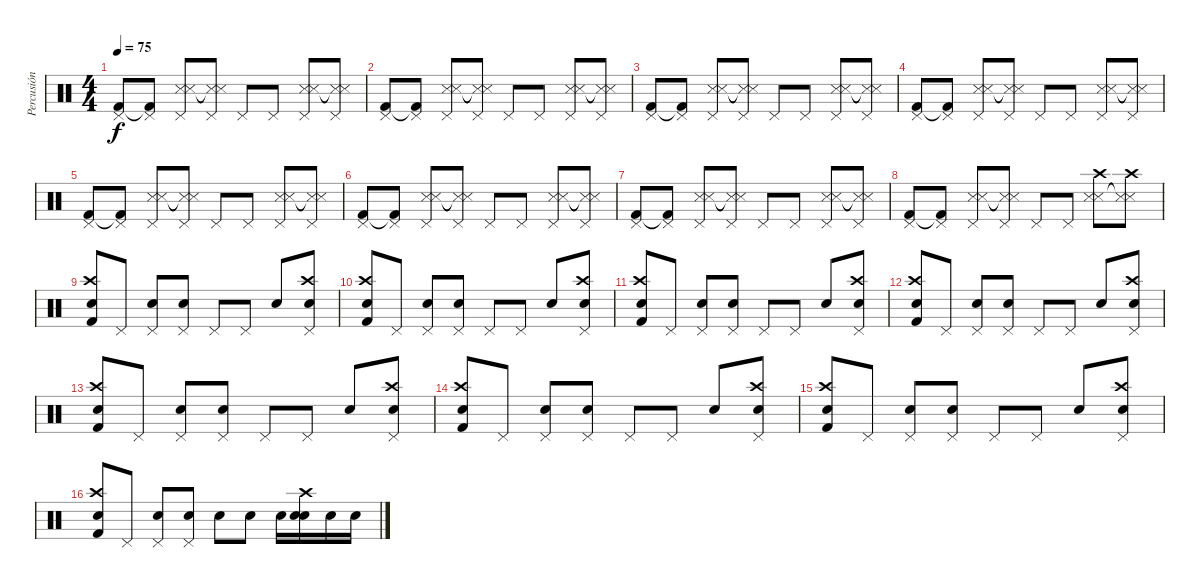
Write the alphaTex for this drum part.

\track ("Percusión" "Percusión") {instrument percussion}
\staff {score}
\articulation defaults
\ts (4 4)
\tempo 75
\clef neutral
\ks c
("Kick (hit) 2" "Pedal Hi-Hat (hit)").8{dy f} ("Kick (hit) 2"{t} "Pedal Hi-Hat (hit)").8 ("Metronome (hit)" "Snare (side stick) 3" "Pedal Hi-Hat (hit)").8 ("Metronome (hit)"{t} "Snare (side stick) 3"{t} "Pedal Hi-Hat (hit)").8 "Pedal Hi-Hat (hit)".8 "Pedal Hi-Hat (hit)".8 ("Metronome (hit)" "Snare (side stick) 3" "Pedal Hi-Hat (hit)").8 ("Metronome (hit)"{t} "Snare (side stick) 3"{t} "Pedal Hi-Hat (hit)").8 |
("Kick (hit) 2" "Pedal Hi-Hat (hit)").8 ("Kick (hit) 2"{t} "Pedal Hi-Hat (hit)").8 ("Metronome (hit)" "Snare (side stick) 3" "Pedal Hi-Hat (hit)").8 ("Metronome (hit)"{t} "Snare (side stick) 3"{t} "Pedal Hi-Hat (hit)").8 "Pedal Hi-Hat (hit)".8 "Pedal Hi-Hat (hit)".8 ("Metronome (hit)" "Snare (side stick) 3" "Pedal Hi-Hat (hit)").8 ("Metronome (hit)"{t} "Snare (side stick) 3"{t} "Pedal Hi-Hat (hit)").8 |
("Kick (hit) 2" "Pedal Hi-Hat (hit)").8 ("Kick (hit) 2"{t} "Pedal Hi-Hat (hit)").8 ("Metronome (hit)" "Snare (side stick) 3" "Pedal Hi-Hat (hit)").8 ("Metronome (hit)"{t} "Snare (side stick) 3"{t} "Pedal Hi-Hat (hit)").8 "Pedal Hi-Hat (hit)".8 "Pedal Hi-Hat (hit)".8 ("Metronome (hit)" "Snare (side stick) 3" "Pedal Hi-Hat (hit)").8 ("Metronome (hit)"{t} "Snare (side stick) 3"{t} "Pedal Hi-Hat (hit)").8 |
("Kick (hit) 2" "Pedal Hi-Hat (hit)").8 ("Kick (hit) 2"{t} "Pedal Hi-Hat (hit)").8 ("Metronome (hit)" "Snare (side stick) 3" "Pedal Hi-Hat (hit)").8 ("Metronome (hit)"{t} "Snare (side stick) 3"{t} "Pedal Hi-Hat (hit)").8 "Pedal Hi-Hat (hit)".8 "Pedal Hi-Hat (hit)".8 ("Metronome (hit)" "Snare (side stick) 3" "Pedal Hi-Hat (hit)").8 ("Metronome (hit)"{t} "Snare (side stick) 3"{t} "Pedal Hi-Hat (hit)").8 |
("Kick (hit) 2" "Pedal Hi-Hat (hit)").8 ("Kick (hit) 2"{t} "Pedal Hi-Hat (hit)").8 ("Metronome (hit)" "Snare (side stick) 3" "Pedal Hi-Hat (hit)").8 ("Metronome (hit)"{t} "Snare (side stick) 3"{t} "Pedal Hi-Hat (hit)").8 "Pedal Hi-Hat (hit)".8 "Pedal Hi-Hat (hit)".8 ("Metronome (hit)" "Snare (side stick) 3" "Pedal Hi-Hat (hit)").8 ("Metronome (hit)"{t} "Snare (side stick) 3"{t} "Pedal Hi-Hat (hit)").8 |
("Kick (hit) 2" "Pedal Hi-Hat (hit)").8 ("Kick (hit) 2"{t} "Pedal Hi-Hat (hit)").8 ("Metronome (hit)" "Snare (side stick) 3" "Pedal Hi-Hat (hit)").8 ("Metronome (hit)"{t} "Snare (side stick) 3"{t} "Pedal Hi-Hat (hit)").8 "Pedal Hi-Hat (hit)".8 "Pedal Hi-Hat (hit)".8 ("Metronome (hit)" "Snare (side stick) 3" "Pedal Hi-Hat (hit)").8 ("Metronome (hit)"{t} "Snare (side stick) 3"{t} "Pedal Hi-Hat (hit)").8 |
("Kick (hit) 2" "Pedal Hi-Hat (hit)").8 ("Kick (hit) 2"{t} "Pedal Hi-Hat (hit)").8 ("Metronome (hit)" "Snare (side stick) 3" "Pedal Hi-Hat (hit)").8 ("Metronome (hit)"{t} "Snare (side stick) 3"{t} "Pedal Hi-Hat (hit)").8 "Pedal Hi-Hat (hit)".8 "Pedal Hi-Hat (hit)".8 ("Metronome (hit)" "Snare (side stick) 3" "Pedal Hi-Hat (hit)").8 ("Metronome (hit)"{t} "Snare (side stick) 3"{t} "Pedal Hi-Hat (hit)").8 |
("Kick (hit) 2" "Pedal Hi-Hat (hit)").8 ("Kick (hit) 2"{t} "Pedal Hi-Hat (hit)").8 ("Metronome (hit)" "Snare (side stick) 3" "Pedal Hi-Hat (hit)").8 ("Metronome (hit)"{t} "Snare (side stick) 3"{t} "Pedal Hi-Hat (hit)").8 "Pedal Hi-Hat (hit)".8 "Pedal Hi-Hat (hit)".8 ("Metronome (hit)" "Snare (side stick) 3" "Crash high (hit)").8 ("Metronome (hit)"{t} "Snare (side stick) 3"{t} "Crash high (hit)").8 |
("Crash high (hit)" "Kick (hit) 2" "Electric Snare (hit)").8 "Pedal Hi-Hat (hit)".8 ("Pedal Hi-Hat (hit)" "Electric Snare (hit)").8 ("Electric Snare (hit)" "Pedal Hi-Hat (hit)").8 "Pedal Hi-Hat (hit)".8 "Pedal Hi-Hat (hit)".8 "Electric Snare (hit)".8 ("Crash high (hit)" "Pedal Hi-Hat (hit)" "Electric Snare (hit)").8 |
("Crash high (hit)" "Kick (hit) 2" "Electric Snare (hit)").8 "Pedal Hi-Hat (hit)".8 ("Pedal Hi-Hat (hit)" "Electric Snare (hit)").8 ("Electric Snare (hit)" "Pedal Hi-Hat (hit)").8 "Pedal Hi-Hat (hit)".8 "Pedal Hi-Hat (hit)".8 "Electric Snare (hit)".8 ("Crash high (hit)" "Pedal Hi-Hat (hit)" "Electric Snare (hit)").8 |
("Crash high (hit)" "Kick (hit) 2" "Electric Snare (hit)").8 "Pedal Hi-Hat (hit)".8 ("Pedal Hi-Hat (hit)" "Electric Snare (hit)").8 ("Electric Snare (hit)" "Pedal Hi-Hat (hit)").8 "Pedal Hi-Hat (hit)".8 "Pedal Hi-Hat (hit)".8 "Electric Snare (hit)".8 ("Crash high (hit)" "Pedal Hi-Hat (hit)" "Electric Snare (hit)").8 |
("Crash high (hit)" "Kick (hit) 2" "Electric Snare (hit)").8 "Pedal Hi-Hat (hit)".8 ("Pedal Hi-Hat (hit)" "Electric Snare (hit)").8 ("Electric Snare (hit)" "Pedal Hi-Hat (hit)").8 "Pedal Hi-Hat (hit)".8 "Pedal Hi-Hat (hit)".8 "Electric Snare (hit)".8 ("Crash high (hit)" "Pedal Hi-Hat (hit)" "Electric Snare (hit)").8 |
("Crash high (hit)" "Kick (hit) 2" "Electric Snare (hit)").8 "Pedal Hi-Hat (hit)".8 ("Pedal Hi-Hat (hit)" "Electric Snare (hit)").8 ("Electric Snare (hit)" "Pedal Hi-Hat (hit)").8 "Pedal Hi-Hat (hit)".8 "Pedal Hi-Hat (hit)".8 "Electric Snare (hit)".8 ("Crash high (hit)" "Pedal Hi-Hat (hit)" "Electric Snare (hit)").8 |
("Crash high (hit)" "Kick (hit) 2" "Electric Snare (hit)").8 "Pedal Hi-Hat (hit)".8 ("Pedal Hi-Hat (hit)" "Electric Snare (hit)").8 ("Electric Snare (hit)" "Pedal Hi-Hat (hit)").8 "Pedal Hi-Hat (hit)".8 "Pedal Hi-Hat (hit)".8 "Electric Snare (hit)".8 ("Crash high (hit)" "Pedal Hi-Hat (hit)" "Electric Snare (hit)").8 |
("Crash high (hit)" "Kick (hit) 2" "Electric Snare (hit)").8 "Pedal Hi-Hat (hit)".8 ("Pedal Hi-Hat (hit)" "Electric Snare (hit)").8 ("Electric Snare (hit)" "Pedal Hi-Hat (hit)").8 "Pedal Hi-Hat (hit)".8 "Pedal Hi-Hat (hit)".8 "Electric Snare (hit)".8 ("Crash high (hit)" "Pedal Hi-Hat (hit)" "Electric Snare (hit)").8 |
("Crash high (hit)" "Kick (hit) 2" "Electric Snare (hit)").8 "Pedal Hi-Hat (hit)".8 ("Pedal Hi-Hat (hit)" "Electric Snare (hit)").8 ("Electric Snare (hit)" "Pedal Hi-Hat (hit)").8 "Electric Snare (hit)".8 "Electric Snare (hit)".8 "Electric Snare (hit)".16 ("Crash high (hit)" "Electric Snare (hit)" "Electric Snare (hit)").16 "Electric Snare (hit)".16 "Electric Snare (hit)".16
